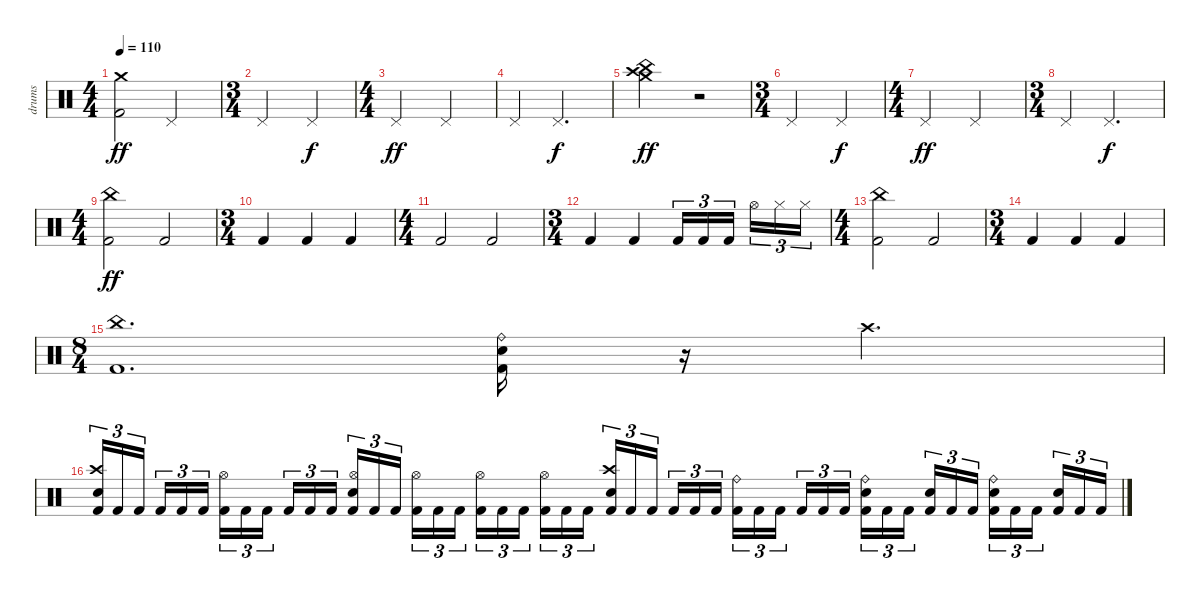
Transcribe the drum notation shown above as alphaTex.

\track ("drums" "drums") {instrument percussion}
\staff {score}
\articulation defaults
\ts (4 4)
\tempo 110
\clef neutral
\ks c
("Crash medium (hit)" "Kick (hit) 2").2{dy ff volume 0} "Pedal Hi-Hat (hit)".2{volume 13} |
\ts (3 4)
"Pedal Hi-Hat (hit)".2 "Pedal Hi-Hat (hit)".4{dy f} |
\ts (4 4)
"Pedal Hi-Hat (hit)".2{dy ff} "Pedal Hi-Hat (hit)".2 |
"Pedal Hi-Hat (hit)".4 "Pedal Hi-Hat (hit)".2{d dy f} |
("Crash high (hit)" "Crash medium (hit)" "China (hit)").2{dy ff} r.2{volume 13} |
\ts (3 4)
"Pedal Hi-Hat (hit)".2 "Pedal Hi-Hat (hit)".4{dy f} |
\ts (4 4)
"Pedal Hi-Hat (hit)".2{dy ff} "Pedal Hi-Hat (hit)".2 |
\ts (3 4)
"Pedal Hi-Hat (hit)".4 "Pedal Hi-Hat (hit)".2{d dy f} |
\ts (4 4)
("China (hit)" "Kick (hit) 2").2{dy ff volume 13} "Kick (hit) 2".2 |
\ts (3 4)
"Kick (hit) 2".4 "Kick (hit) 2".4 "Kick (hit) 2".4 |
\ts (4 4)
"Kick (hit) 2".2{volume 13} "Kick (hit) 2".2 |
\ts (3 4)
"Kick (hit) 2".4 "Kick (hit) 2".4 "Kick (hit) 2".16{tu (3 2)} "Kick (hit) 2".16{tu (3 2)} "Kick (hit) 2".16{tu (3 2) beam splitsecondary} "Hi-Hat (open)".16{tu (3 2)} "Hi-Hat (closed)".16{tu (3 2)} "Hi-Hat (closed)".16{tu (3 2)} |
\ts (4 4)
("China (hit)" "Kick (hit) 2").2{volume 13} "Kick (hit) 2".2 |
\ts (3 4)
"Kick (hit) 2".4 "Kick (hit) 2".4 "Kick (hit) 2".4 |
\ts (8 4)
("China (hit)" "Kick (hit) 2").1{d} ("Electric Snare (hit)" "Ride (bell)" "Kick (hit) 2").16{volume 13} r.16{volume 0} "Crash high (hit)".4{d volume 13} |
("Electric Snare (hit)" "Crash high (hit)" "Kick (hit) 2").16{tu (3 2)} "Kick (hit) 2".16{tu (3 2)} "Kick (hit) 2".16{tu (3 2) beam splitsecondary} "Kick (hit) 2".16{tu (3 2)} "Kick (hit) 2".16{tu (3 2)} "Kick (hit) 2".16{tu (3 2)} ("Hi-Hat (open)" "Kick (hit) 2").16{tu (3 2)} "Kick (hit) 2".16{tu (3 2)} "Kick (hit) 2".16{tu (3 2) beam splitsecondary} "Kick (hit) 2".16{tu (3 2)} "Kick (hit) 2".16{tu (3 2)} "Kick (hit) 2".16{tu (3 2)} ("Electric Snare (hit)" "Hi-Hat (open)" "Kick (hit) 2").16{tu (3 2)} "Kick (hit) 2".16{tu (3 2)} "Kick (hit) 2".16{tu (3 2) beam splitsecondary} ("Hi-Hat (open)" "Kick (hit) 2").16{tu (3 2)} "Kick (hit) 2".16{tu (3 2)} "Kick (hit) 2".16{tu (3 2)} ("Hi-Hat (open)" "Kick (hit) 2").16{tu (3 2)} "Kick (hit) 2".16{tu (3 2)} "Kick (hit) 2".16{tu (3 2) beam splitsecondary} ("Hi-Hat (open)" "Kick (hit) 2").16{tu (3 2)} "Kick (hit) 2".16{tu (3 2)} "Kick (hit) 2".16{tu (3 2)} ("Electric Snare (hit)" "Crash high (hit)" "Kick (hit) 2").16{tu (3 2)} "Kick (hit) 2".16{tu (3 2)} "Kick (hit) 2".16{tu (3 2) beam splitsecondary} "Kick (hit) 2".16{tu (3 2)} "Kick (hit) 2".16{tu (3 2)} "Kick (hit) 2".16{tu (3 2)} ("Ride (bell)" "Kick (hit) 2").16{tu (3 2)} "Kick (hit) 2".16{tu (3 2)} "Kick (hit) 2".16{tu (3 2) beam splitsecondary} "Kick (hit) 2".16{tu (3 2)} "Kick (hit) 2".16{tu (3 2)} "Kick (hit) 2".16{tu (3 2)} ("Electric Snare (hit)" "Ride (bell)" "Kick (hit) 2").16{tu (3 2)} "Kick (hit) 2".16{tu (3 2)} "Kick (hit) 2".16{tu (3 2) beam splitsecondary} ("Electric Snare (hit)" "Kick (hit) 2").16{tu (3 2)} "Kick (hit) 2".16{tu (3 2)} "Kick (hit) 2".16{tu (3 2)} ("Electric Snare (hit)" "Ride (bell)" "Kick (hit) 2").16{tu (3 2)} "Kick (hit) 2".16{tu (3 2)} "Kick (hit) 2".16{tu (3 2) beam splitsecondary} ("Electric Snare (hit)" "Kick (hit) 2").16{tu (3 2)} "Kick (hit) 2".16{tu (3 2)} "Kick (hit) 2".16{tu (3 2)}
